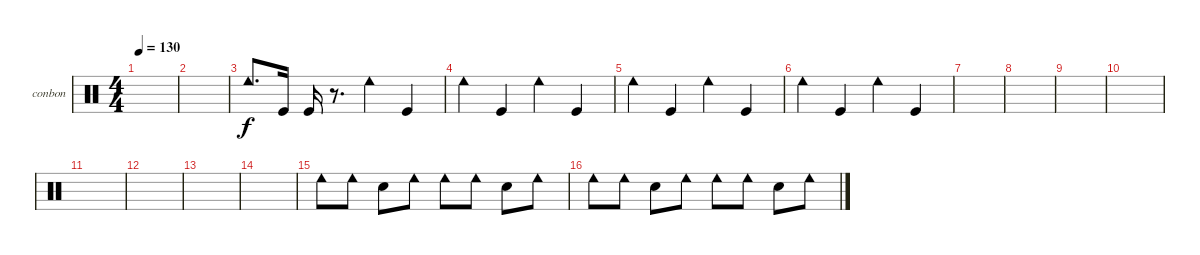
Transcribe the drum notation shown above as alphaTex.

\defaultSystemsLayout 4
\bracketExtendMode groupsimilarinstruments
\firstSystemTrackNameOrientation horizontal
\otherSystemsTrackNameOrientation horizontal
\track ("Addictional Drumkit" "conbon") {instrument percussion}
\staff {score}
\articulation defaults
\ts (4 4)
\tempo 130
\clef neutral
\ks c
|
|
\scale
0.472222 "Cowbell low (hit)".8{d} "Kick (hit)".16 "Kick (hit)".16 r.8{d} "Cowbell low (hit)".4 "Kick (hit)".4 |
\scale
0.263889 "Cowbell low (hit)".4 "Kick (hit)".4 "Cowbell low (hit)".4 "Kick (hit)".4 |
\scale
0.263889 "Cowbell low (hit)".4 "Kick (hit)".4 "Cowbell low (hit)".4 "Kick (hit)".4 |
\scale
0.333333 "Cowbell low (hit)".4 "Kick (hit)".4 "Cowbell low (hit)".4 "Kick (hit)".4 |
\scale
0.333333 |
\scale
0.333333 |
\scale
0.333333 |
\scale
0.333333 |
\scale
0.333333 |
\scale
0.333333 |
\scale
0.333333 |
\scale
0.333333 |
\scale
0.333333 "Cowbell low (hit)".8 "Cowbell low (hit)".8 "Snare (hit) 2".8 "Cowbell low (hit)".8 "Cowbell low (hit)".8 "Cowbell low (hit)".8 "Snare (hit) 2".8 "Cowbell low (hit)".8 |
\scale
0.333333 "Cowbell low (hit)".8 "Cowbell low (hit)".8 "Snare (hit) 2".8 "Cowbell low (hit)".8 "Cowbell low (hit)".8 "Cowbell low (hit)".8 "Snare (hit) 2".8 "Cowbell low (hit)".8
